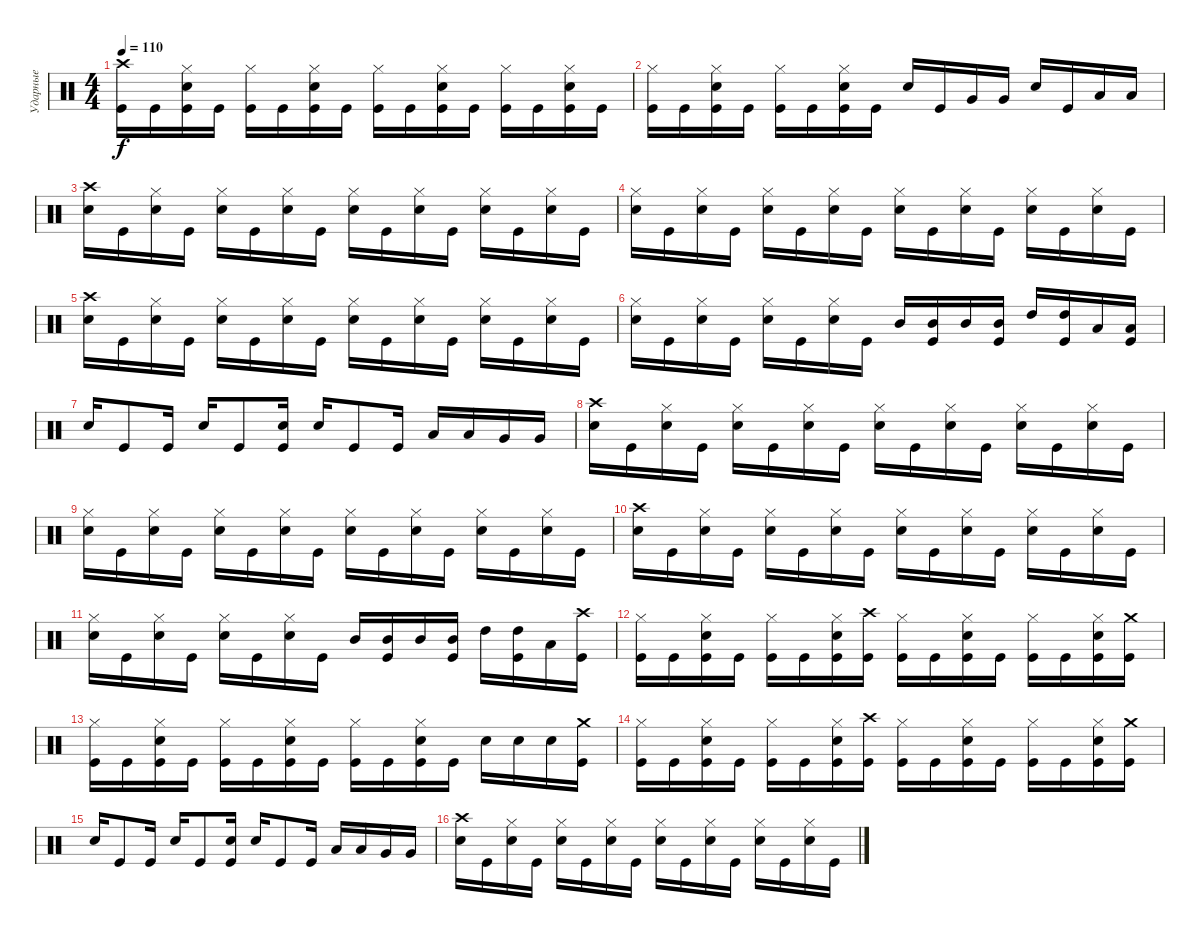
\track ("Ударные" "Ударные") {instrument percussion}
\staff {score}
\articulation defaults
\ts (4 4)
\tempo 110
\clef neutral
\ks c
("Crash high (hit)" "Kick (hit)").16{dy f} "Kick (hit)".16 ("Hi-Hat (closed)" "Electric Snare (hit)" "Kick (hit)").16 "Kick (hit)".16 ("Hi-Hat (closed)" "Kick (hit)").16 "Kick (hit)".16 ("Hi-Hat (closed)" "Electric Snare (hit)" "Kick (hit)").16 "Kick (hit)".16 ("Hi-Hat (closed)" "Kick (hit)").16 "Kick (hit)".16 ("Hi-Hat (closed)" "Electric Snare (hit)" "Kick (hit)").16 "Kick (hit)".16 ("Hi-Hat (closed)" "Kick (hit)").16 "Kick (hit)".16 ("Hi-Hat (closed)" "Electric Snare (hit)" "Kick (hit)").16 "Kick (hit)".16 |
("Hi-Hat (closed)" "Kick (hit)").16 "Kick (hit)".16 ("Hi-Hat (closed)" "Electric Snare (hit)" "Kick (hit)").16 "Kick (hit)".16 ("Hi-Hat (closed)" "Kick (hit)").16 "Kick (hit)".16 ("Hi-Hat (closed)" "Electric Snare (hit)" "Kick (hit)").16 "Kick (hit)".16 "Electric Snare (hit)".16 "Kick (hit)".16 "Very Low Tom (hit)".16 "Very Low Tom (hit)".16 "Electric Snare (hit)".16 "Kick (hit)".16 "Low Tom (hit)".16 "Low Tom (hit)".16 |
("Crash high (hit)" "Electric Snare (hit)").16 "Kick (hit)".16 ("Hi-Hat (closed)" "Electric Snare (hit)").16 "Kick (hit)".16 ("Hi-Hat (closed)" "Electric Snare (hit)").16 "Kick (hit)".16 ("Hi-Hat (closed)" "Electric Snare (hit)").16 "Kick (hit)".16 ("Hi-Hat (closed)" "Electric Snare (hit)").16 "Kick (hit)".16 ("Hi-Hat (closed)" "Electric Snare (hit)").16 "Kick (hit)".16 ("Hi-Hat (closed)" "Electric Snare (hit)").16 "Kick (hit)".16 ("Hi-Hat (closed)" "Electric Snare (hit)").16 "Kick (hit)".16 |
("Hi-Hat (closed)" "Electric Snare (hit)").16 "Kick (hit)".16 ("Hi-Hat (closed)" "Electric Snare (hit)").16 "Kick (hit)".16 ("Hi-Hat (closed)" "Electric Snare (hit)").16 "Kick (hit)".16 ("Hi-Hat (closed)" "Electric Snare (hit)").16 "Kick (hit)".16 ("Hi-Hat (closed)" "Electric Snare (hit)").16 "Kick (hit)".16 ("Hi-Hat (closed)" "Electric Snare (hit)").16 "Kick (hit)".16 ("Hi-Hat (closed)" "Electric Snare (hit)").16 "Kick (hit)".16 ("Hi-Hat (closed)" "Electric Snare (hit)").16 "Kick (hit)".16 |
("Crash high (hit)" "Electric Snare (hit)").16 "Kick (hit)".16 ("Hi-Hat (closed)" "Electric Snare (hit)").16 "Kick (hit)".16 ("Hi-Hat (closed)" "Electric Snare (hit)").16 "Kick (hit)".16 ("Hi-Hat (closed)" "Electric Snare (hit)").16 "Kick (hit)".16 ("Hi-Hat (closed)" "Electric Snare (hit)").16 "Kick (hit)".16 ("Hi-Hat (closed)" "Electric Snare (hit)").16 "Kick (hit)".16 ("Hi-Hat (closed)" "Electric Snare (hit)").16 "Kick (hit)".16 ("Hi-Hat (closed)" "Electric Snare (hit)").16 "Kick (hit)".16 |
("Hi-Hat (closed)" "Electric Snare (hit)").16 "Kick (hit)".16 ("Hi-Hat (closed)" "Electric Snare (hit)").16 "Kick (hit)".16 ("Hi-Hat (closed)" "Electric Snare (hit)").16 "Kick (hit)".16 ("Hi-Hat (closed)" "Electric Snare (hit)").16 "Kick (hit)".16 "Mid Tom (hit)".16 ("Mid Tom (hit)" "Kick (hit)").16 "Mid Tom (hit)".16 ("Mid Tom (hit)" "Kick (hit)").16 "High Tom (hit)".16 ("High Tom (hit)" "Kick (hit)").16 "Low Tom (hit)".16 ("Low Tom (hit)" "Kick (hit)").16 |
"Electric Snare (hit)".16 "Kick (hit)".8 "Kick (hit)".16 "Electric Snare (hit)".16 "Kick (hit)".8 ("Electric Snare (hit)" "Kick (hit)").16 "Electric Snare (hit)".16 "Kick (hit)".8 "Kick (hit)".16 "Low Tom (hit)".16 "Low Tom (hit)".16 "Very Low Tom (hit)".16 "Very Low Tom (hit)".16 |
("Crash high (hit)" "Electric Snare (hit)").16 "Kick (hit)".16 ("Hi-Hat (closed)" "Electric Snare (hit)").16 "Kick (hit)".16 ("Hi-Hat (closed)" "Electric Snare (hit)").16 "Kick (hit)".16 ("Hi-Hat (closed)" "Electric Snare (hit)").16 "Kick (hit)".16 ("Hi-Hat (closed)" "Electric Snare (hit)").16 "Kick (hit)".16 ("Hi-Hat (closed)" "Electric Snare (hit)").16 "Kick (hit)".16 ("Hi-Hat (closed)" "Electric Snare (hit)").16 "Kick (hit)".16 ("Hi-Hat (closed)" "Electric Snare (hit)").16 "Kick (hit)".16 |
("Hi-Hat (closed)" "Electric Snare (hit)").16 "Kick (hit)".16 ("Hi-Hat (closed)" "Electric Snare (hit)").16 "Kick (hit)".16 ("Hi-Hat (closed)" "Electric Snare (hit)").16 "Kick (hit)".16 ("Hi-Hat (closed)" "Electric Snare (hit)").16 "Kick (hit)".16 ("Hi-Hat (closed)" "Electric Snare (hit)").16 "Kick (hit)".16 ("Hi-Hat (closed)" "Electric Snare (hit)").16 "Kick (hit)".16 ("Hi-Hat (closed)" "Electric Snare (hit)").16 "Kick (hit)".16 ("Hi-Hat (closed)" "Electric Snare (hit)").16 "Kick (hit)".16 |
("Crash high (hit)" "Electric Snare (hit)").16 "Kick (hit)".16 ("Hi-Hat (closed)" "Electric Snare (hit)").16 "Kick (hit)".16 ("Hi-Hat (closed)" "Electric Snare (hit)").16 "Kick (hit)".16 ("Hi-Hat (closed)" "Electric Snare (hit)").16 "Kick (hit)".16 ("Hi-Hat (closed)" "Electric Snare (hit)").16 "Kick (hit)".16 ("Hi-Hat (closed)" "Electric Snare (hit)").16 "Kick (hit)".16 ("Hi-Hat (closed)" "Electric Snare (hit)").16 "Kick (hit)".16 ("Hi-Hat (closed)" "Electric Snare (hit)").16 "Kick (hit)".16 |
("Hi-Hat (closed)" "Electric Snare (hit)").16 "Kick (hit)".16 ("Hi-Hat (closed)" "Electric Snare (hit)").16 "Kick (hit)".16 ("Hi-Hat (closed)" "Electric Snare (hit)").16 "Kick (hit)".16 ("Hi-Hat (closed)" "Electric Snare (hit)").16 "Kick (hit)".16 "Mid Tom (hit)".16 ("Mid Tom (hit)" "Kick (hit)").16 "Mid Tom (hit)".16 ("Mid Tom (hit)" "Kick (hit)").16 "High Tom (hit)".16 ("High Tom (hit)" "Kick (hit)").16 "Low Tom (hit)".16 ("Crash high (hit)" "Kick (hit)").16 |
("Hi-Hat (closed)" "Kick (hit)").16 "Kick (hit)".16 ("Hi-Hat (closed)" "Electric Snare (hit)" "Kick (hit)").16 "Kick (hit)".16 ("Hi-Hat (closed)" "Kick (hit)").16 "Kick (hit)".16 ("Hi-Hat (closed)" "Electric Snare (hit)" "Kick (hit)").16 ("Crash high (hit)" "Kick (hit)").16 ("Hi-Hat (closed)" "Kick (hit)").16 "Kick (hit)".16 ("Hi-Hat (closed)" "Electric Snare (hit)" "Kick (hit)").16 "Kick (hit)".16 ("Hi-Hat (closed)" "Kick (hit)").16 "Kick (hit)".16 ("Hi-Hat (closed)" "Electric Snare (hit)" "Kick (hit)").16 ("Crash medium (hit)" "Kick (hit)").16 |
("Hi-Hat (closed)" "Kick (hit)").16 "Kick (hit)".16 ("Hi-Hat (closed)" "Electric Snare (hit)" "Kick (hit)").16 "Kick (hit)".16 ("Hi-Hat (closed)" "Kick (hit)").16 "Kick (hit)".16 ("Hi-Hat (closed)" "Electric Snare (hit)" "Kick (hit)").16 "Kick (hit)".16 ("Hi-Hat (closed)" "Kick (hit)").16 "Kick (hit)".16 ("Hi-Hat (closed)" "Electric Snare (hit)" "Kick (hit)").16 "Kick (hit)".16 "Electric Snare (hit)".16 "Electric Snare (hit)".16 "Electric Snare (hit)".16 ("Crash medium (hit)" "Kick (hit)").16 |
("Hi-Hat (closed)" "Kick (hit)").16 "Kick (hit)".16 ("Hi-Hat (closed)" "Electric Snare (hit)" "Kick (hit)").16 "Kick (hit)".16 ("Hi-Hat (closed)" "Kick (hit)").16 "Kick (hit)".16 ("Hi-Hat (closed)" "Electric Snare (hit)" "Kick (hit)").16 ("Crash high (hit)" "Kick (hit)").16 ("Hi-Hat (closed)" "Kick (hit)").16 "Kick (hit)".16 ("Hi-Hat (closed)" "Electric Snare (hit)" "Kick (hit)").16 "Kick (hit)".16 ("Hi-Hat (closed)" "Kick (hit)").16 "Kick (hit)".16 ("Hi-Hat (closed)" "Electric Snare (hit)" "Kick (hit)").16 ("Crash medium (hit)" "Kick (hit)").16 |
"Electric Snare (hit)".16 "Kick (hit)".8 "Kick (hit)".16 "Electric Snare (hit)".16 "Kick (hit)".8 ("Electric Snare (hit)" "Kick (hit)").16 "Electric Snare (hit)".16 "Kick (hit)".8 "Kick (hit)".16 "Low Tom (hit)".16 "Low Tom (hit)".16 "Very Low Tom (hit)".16 "Very Low Tom (hit)".16 |
("Crash high (hit)" "Electric Snare (hit)").16 "Kick (hit)".16 ("Hi-Hat (closed)" "Electric Snare (hit)").16 "Kick (hit)".16 ("Hi-Hat (closed)" "Electric Snare (hit)").16 "Kick (hit)".16 ("Hi-Hat (closed)" "Electric Snare (hit)").16 "Kick (hit)".16 ("Hi-Hat (closed)" "Electric Snare (hit)").16 "Kick (hit)".16 ("Hi-Hat (closed)" "Electric Snare (hit)").16 "Kick (hit)".16 ("Hi-Hat (closed)" "Electric Snare (hit)").16 "Kick (hit)".16 ("Hi-Hat (closed)" "Electric Snare (hit)").16 "Kick (hit)".16
